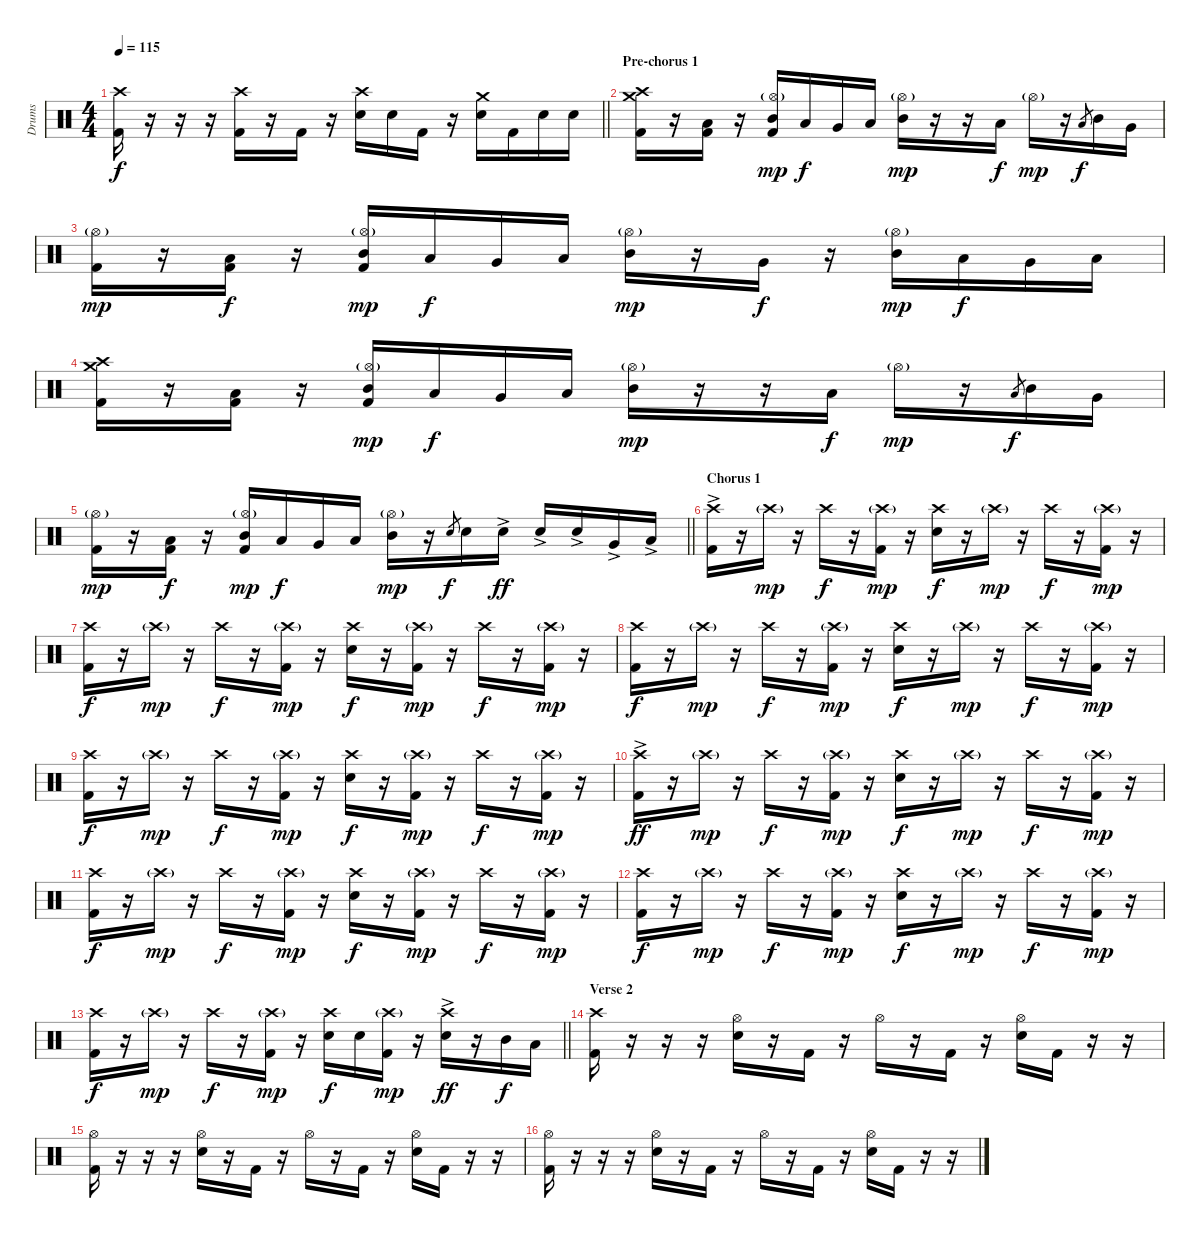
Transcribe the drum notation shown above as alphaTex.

\track ("Drums" "Drums") {instrument percussion}
\staff {score}
\articulation defaults
\ts (4 4)
\tempo 115
\clef neutral
\barLineRight lightlight
\ks c
("Crash high (hit)" "Kick (hit) 2").16{dy f} r.16 r.16 r.16 ("Crash high (hit)" "Kick (hit) 2").16 r.16 "Kick (hit) 2".16 r.16 ("Crash high (hit)" "Electric Snare (hit)").16 "Electric Snare (hit)".16 "Kick (hit) 2".16 r.16 ("Crash medium (hit)" "Electric Snare (hit)").16 "Kick (hit) 2".16 "Electric Snare (hit)".16 "Electric Snare (hit)".16 |
\section ("" "Pre-chorus 1")
("Crash high (hit)" "Crash medium (hit)" "Kick (hit) 2").16 r.16 ("Low Tom (hit)" "Kick (hit) 2").16 r.16 ("Hi-Hat (open)"{g} "Mid Tom (hit)" "Kick (hit) 2").16{dy mp} "Low Tom (hit)".16{dy f} "Very Low Tom (hit)".16 "Low Tom (hit)".16 ("Hi-Hat (open)"{g} "Mid Tom (hit)").16{dy mp} r.16 r.16 "Low Tom (hit)".16{dy f} "Hi-Hat (open)"{g}.16{dy mp} r.16 "Low Tom (hit)".8{gr dy f} "Mid Tom (hit)".16 "Very Low Tom (hit)".16 |
("Hi-Hat (open)"{g} "Kick (hit) 2").16{dy mp} r.16 ("Low Tom (hit)" "Kick (hit) 2").16{dy f} r.16 ("Hi-Hat (open)"{g} "Mid Tom (hit)" "Kick (hit) 2").16{dy mp} "Low Tom (hit)".16{dy f} "Very Low Tom (hit)".16 "Low Tom (hit)".16 ("Hi-Hat (open)"{g} "Mid Tom (hit)").16{dy mp} r.16 "Very Low Tom (hit)".16{dy f} r.16 ("Hi-Hat (open)"{g} "Mid Tom (hit)").16{dy mp} "Low Tom (hit)".16{dy f} "Very Low Tom (hit)".16 "Low Floor Tom (hit)".16 |
("Crash high (hit)" "Crash medium (hit)" "Kick (hit) 2").16 r.16 ("Low Tom (hit)" "Kick (hit) 2").16 r.16 ("Hi-Hat (open)"{g} "Mid Tom (hit)" "Kick (hit) 2").16{dy mp} "Low Tom (hit)".16{dy f} "Very Low Tom (hit)".16 "Low Tom (hit)".16 ("Hi-Hat (open)"{g} "Mid Tom (hit)").16{dy mp} r.16 r.16 "Low Tom (hit)".16{dy f} "Hi-Hat (open)"{g}.16{dy mp} r.16 "Low Tom (hit)".8{gr dy f} "Mid Tom (hit)".16 "Very Low Tom (hit)".16 |
\barLineRight lightlight
("Hi-Hat (open)"{g} "Kick (hit) 2").16{dy mp} r.16 ("Low Tom (hit)" "Kick (hit) 2").16{dy f} r.16 ("Hi-Hat (open)"{g} "Mid Tom (hit)" "Kick (hit) 2").16{dy mp} "Low Tom (hit)".16{dy f} "Very Low Tom (hit)".16 "Low Tom (hit)".16 ("Hi-Hat (open)"{g} "Mid Tom (hit)").16{dy mp} r.16 "Electric Snare (hit)".8{gr dy f} "Electric Snare (hit)".16 "Electric Snare (hit)"{ac}.16{dy ff} "Electric Snare (hit)"{ac}.16 "Electric Snare (hit)"{ac}.16 "Very Low Tom (hit)"{ac}.16 "Low Floor Tom (hit)"{ac}.16 |
\section ("" "Chorus 1")
("Crash high (hit)"{ac} "Kick (hit) 2").16 r.16 "Crash high (hit)"{g}.16{dy mp} r.16 "Crash high (hit)".16{dy f} r.16 ("Crash high (hit)"{g} "Kick (hit) 2").16{dy mp} r.16 ("Crash high (hit)" "Electric Snare (hit)").16{dy f} r.16 "Crash high (hit)"{g}.16{dy mp} r.16 "Crash high (hit)".16{dy f} r.16 ("Crash high (hit)"{g} "Kick (hit) 2").16{dy mp} r.16 |
("Crash high (hit)" "Kick (hit) 2").16{dy f} r.16 "Crash high (hit)"{g}.16{dy mp} r.16 "Crash high (hit)".16{dy f} r.16 ("Crash high (hit)"{g} "Kick (hit) 2").16{dy mp} r.16 ("Crash high (hit)" "Electric Snare (hit)").16{dy f} r.16 ("Crash high (hit)"{g} "Kick (hit) 2").16{dy mp} r.16 "Crash high (hit)".16{dy f} r.16 ("Crash high (hit)"{g} "Kick (hit) 2").16{dy mp} r.16 |
("Crash high (hit)" "Kick (hit) 2").16{dy f} r.16 "Crash high (hit)"{g}.16{dy mp} r.16 "Crash high (hit)".16{dy f} r.16 ("Crash high (hit)"{g} "Kick (hit) 2").16{dy mp} r.16 ("Crash high (hit)" "Electric Snare (hit)").16{dy f} r.16 "Crash high (hit)"{g}.16{dy mp} r.16 "Crash high (hit)".16{dy f} r.16 ("Crash high (hit)"{g} "Kick (hit) 2").16{dy mp} r.16 |
("Crash high (hit)" "Kick (hit) 2").16{dy f} r.16 "Crash high (hit)"{g}.16{dy mp} r.16 "Crash high (hit)".16{dy f} r.16 ("Crash high (hit)"{g} "Kick (hit) 2").16{dy mp} r.16 ("Crash high (hit)" "Electric Snare (hit)").16{dy f} r.16 ("Crash high (hit)"{g} "Kick (hit) 2").16{dy mp} r.16 "Crash high (hit)".16{dy f} r.16 ("Crash high (hit)"{g} "Kick (hit) 2").16{dy mp} r.16 |
("Crash high (hit)"{ac} "Kick (hit) 2").16{dy ff} r.16 "Crash high (hit)"{g}.16{dy mp} r.16 "Crash high (hit)".16{dy f} r.16 ("Crash high (hit)"{g} "Kick (hit) 2").16{dy mp} r.16 ("Crash high (hit)" "Electric Snare (hit)").16{dy f} r.16 "Crash high (hit)"{g}.16{dy mp} r.16 "Crash high (hit)".16{dy f} r.16 ("Crash high (hit)"{g} "Kick (hit) 2").16{dy mp} r.16 |
("Crash high (hit)" "Kick (hit) 2").16{dy f} r.16 "Crash high (hit)"{g}.16{dy mp} r.16 "Crash high (hit)".16{dy f} r.16 ("Crash high (hit)"{g} "Kick (hit) 2").16{dy mp} r.16 ("Crash high (hit)" "Electric Snare (hit)").16{dy f} r.16 ("Crash high (hit)"{g} "Kick (hit) 2").16{dy mp} r.16 "Crash high (hit)".16{dy f} r.16 ("Crash high (hit)"{g} "Kick (hit) 2").16{dy mp} r.16 |
("Crash high (hit)" "Kick (hit) 2").16{dy f} r.16 "Crash high (hit)"{g}.16{dy mp} r.16 "Crash high (hit)".16{dy f} r.16 ("Crash high (hit)"{g} "Kick (hit) 2").16{dy mp} r.16 ("Crash high (hit)" "Electric Snare (hit)").16{dy f} r.16 "Crash high (hit)"{g}.16{dy mp} r.16 "Crash high (hit)".16{dy f} r.16 ("Crash high (hit)"{g} "Kick (hit) 2").16{dy mp} r.16 |
\barLineRight lightlight
("Crash high (hit)" "Kick (hit) 2").16{dy f} r.16 "Crash high (hit)"{g}.16{dy mp} r.16 "Crash high (hit)".16{dy f} r.16 ("Crash high (hit)"{g} "Kick (hit) 2").16{dy mp} r.16 ("Crash high (hit)" "Electric Snare (hit)").16{dy f} "Electric Snare (hit)".16 ("Crash high (hit)"{g} "Kick (hit) 2").16{dy mp} r.16 ("Crash high (hit)" "Electric Snare (hit)"{ac}).16{dy ff} r.16 "Mid Tom (hit)".16{dy f} "Low Tom (hit)".16 |
\section ("" "Verse 2")
("Crash high (hit)" "Kick (hit) 2").16 r.16 r.16 r.16 ("Hi-Hat (open)" "Electric Snare (hit)").16 r.16 "Kick (hit) 2".16 r.16 "Hi-Hat (open)".16 r.16 "Kick (hit) 2".16 r.16 ("Hi-Hat (open)" "Electric Snare (hit)").16 "Kick (hit) 2".16 r.16 r.16 |
("Hi-Hat (open)" "Kick (hit) 2").16 r.16 r.16 r.16 ("Hi-Hat (open)" "Electric Snare (hit)").16 r.16 "Kick (hit) 2".16 r.16 "Hi-Hat (open)".16 r.16 "Kick (hit) 2".16 r.16 ("Hi-Hat (open)" "Electric Snare (hit)").16 "Kick (hit) 2".16 r.16 r.16 |
("Hi-Hat (open)" "Kick (hit) 2").16 r.16 r.16 r.16 ("Hi-Hat (open)" "Electric Snare (hit)").16 r.16 "Kick (hit) 2".16 r.16 "Hi-Hat (open)".16 r.16 "Kick (hit) 2".16 r.16 ("Hi-Hat (open)" "Electric Snare (hit)").16 "Kick (hit) 2".16 r.16 r.16
